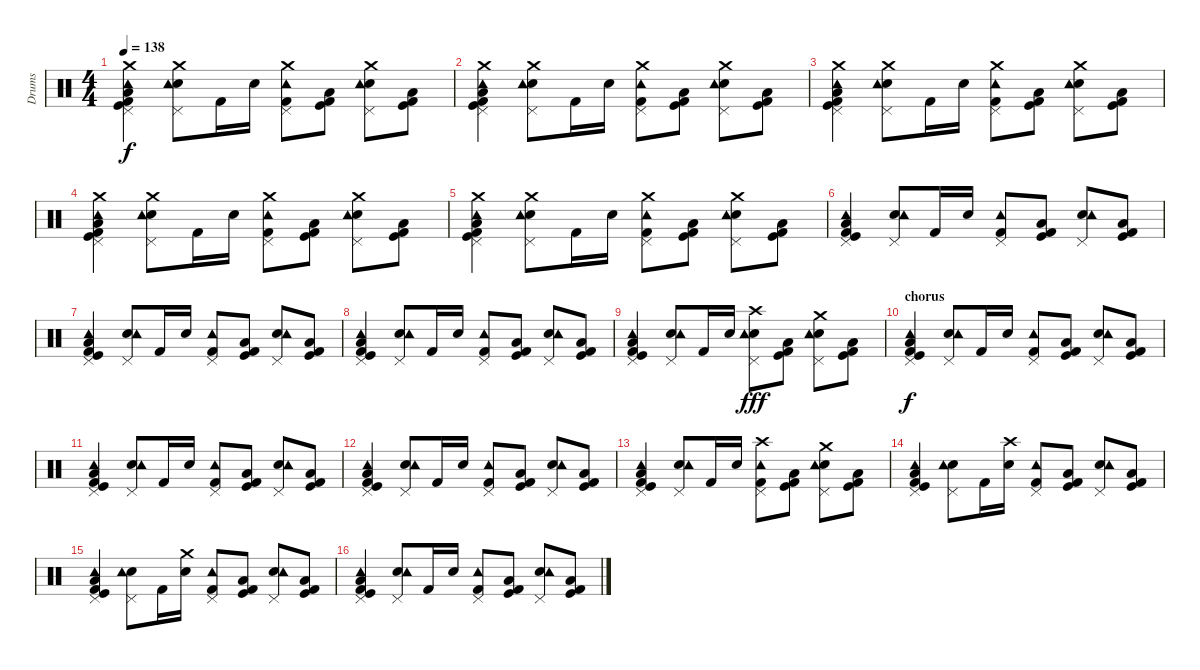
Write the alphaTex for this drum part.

\track ("Drums" "Drums") {instrument percussion}
\staff {score}
\articulation defaults
\ts (4 4)
\tempo 138
\clef neutral
\ks c
("Crash medium (hit)" "Pedal Hi-Hat (hit)" "Kick (hit) 2" "Kick (hit)" "Low Floor Tom (hit)" "Tambourine (hit)").4{dy f} ("Crash medium (hit)" "Pedal Hi-Hat (hit)" "Electric Snare (hit)" "Tambourine (hit)").8 "Kick (hit) 2".16 "Electric Snare (hit)".16 ("Crash medium (hit)" "Pedal Hi-Hat (hit)" "Kick (hit) 2" "Tambourine (hit)").8 ("Kick (hit) 2" "Kick (hit)" "Low Floor Tom (hit)").8 ("Crash medium (hit)" "Pedal Hi-Hat (hit)" "Electric Snare (hit)" "Tambourine (hit)").8 ("Kick (hit) 2" "Low Floor Tom (hit)" "Kick (hit)").8 |
("Crash medium (hit)" "Pedal Hi-Hat (hit)" "Kick (hit) 2" "Kick (hit)" "Low Floor Tom (hit)" "Tambourine (hit)").4 ("Crash medium (hit)" "Pedal Hi-Hat (hit)" "Electric Snare (hit)" "Tambourine (hit)").8 "Kick (hit) 2".16 "Electric Snare (hit)".16 ("Crash medium (hit)" "Pedal Hi-Hat (hit)" "Kick (hit) 2" "Tambourine (hit)").8 ("Kick (hit) 2" "Kick (hit)" "Low Floor Tom (hit)").8 ("Crash medium (hit)" "Pedal Hi-Hat (hit)" "Electric Snare (hit)" "Tambourine (hit)").8 ("Kick (hit) 2" "Low Floor Tom (hit)" "Kick (hit)").8 |
("Crash medium (hit)" "Pedal Hi-Hat (hit)" "Kick (hit) 2" "Kick (hit)" "Low Floor Tom (hit)" "Tambourine (hit)").4 ("Crash medium (hit)" "Pedal Hi-Hat (hit)" "Electric Snare (hit)" "Tambourine (hit)").8 "Kick (hit) 2".16 "Electric Snare (hit)".16 ("Crash medium (hit)" "Pedal Hi-Hat (hit)" "Kick (hit) 2" "Tambourine (hit)").8 ("Kick (hit) 2" "Kick (hit)" "Low Floor Tom (hit)").8 ("Crash medium (hit)" "Pedal Hi-Hat (hit)" "Electric Snare (hit)" "Tambourine (hit)").8 ("Kick (hit) 2" "Low Floor Tom (hit)" "Kick (hit)").8 |
("Crash medium (hit)" "Pedal Hi-Hat (hit)" "Kick (hit) 2" "Kick (hit)" "Low Floor Tom (hit)" "Tambourine (hit)").4 ("Crash medium (hit)" "Pedal Hi-Hat (hit)" "Electric Snare (hit)" "Tambourine (hit)").8 "Kick (hit) 2".16 "Electric Snare (hit)".16 ("Crash medium (hit)" "Pedal Hi-Hat (hit)" "Kick (hit) 2" "Tambourine (hit)").8 ("Kick (hit) 2" "Kick (hit)" "Low Floor Tom (hit)").8 ("Crash medium (hit)" "Pedal Hi-Hat (hit)" "Electric Snare (hit)" "Tambourine (hit)").8 ("Kick (hit) 2" "Low Floor Tom (hit)" "Kick (hit)").8 |
("Crash medium (hit)" "Pedal Hi-Hat (hit)" "Kick (hit) 2" "Kick (hit)" "Low Floor Tom (hit)" "Tambourine (hit)").4 ("Crash medium (hit)" "Pedal Hi-Hat (hit)" "Electric Snare (hit)" "Tambourine (hit)").8 "Kick (hit) 2".16 "Electric Snare (hit)".16 ("Crash medium (hit)" "Pedal Hi-Hat (hit)" "Kick (hit) 2" "Tambourine (hit)").8 ("Kick (hit) 2" "Kick (hit)" "Low Floor Tom (hit)").8 ("Crash medium (hit)" "Pedal Hi-Hat (hit)" "Electric Snare (hit)" "Tambourine (hit)").8 ("Kick (hit) 2" "Low Floor Tom (hit)" "Kick (hit)").8 |
("Pedal Hi-Hat (hit)" "Kick (hit) 2" "Kick (hit)" "Low Floor Tom (hit)" "Tambourine (hit)").4 ("Pedal Hi-Hat (hit)" "Electric Snare (hit)" "Tambourine (hit)").8 "Kick (hit) 2".16 "Electric Snare (hit)".16 ("Pedal Hi-Hat (hit)" "Kick (hit) 2" "Tambourine (hit)").8 ("Kick (hit) 2" "Kick (hit)" "Low Floor Tom (hit)").8 ("Pedal Hi-Hat (hit)" "Electric Snare (hit)" "Tambourine (hit)").8 ("Kick (hit) 2" "Low Floor Tom (hit)" "Kick (hit)").8 |
("Pedal Hi-Hat (hit)" "Kick (hit) 2" "Kick (hit)" "Low Floor Tom (hit)" "Tambourine (hit)").4 ("Pedal Hi-Hat (hit)" "Electric Snare (hit)" "Tambourine (hit)").8 "Kick (hit) 2".16 "Electric Snare (hit)".16 ("Pedal Hi-Hat (hit)" "Kick (hit) 2" "Tambourine (hit)").8 ("Kick (hit) 2" "Kick (hit)" "Low Floor Tom (hit)").8 ("Pedal Hi-Hat (hit)" "Electric Snare (hit)" "Tambourine (hit)").8 ("Kick (hit) 2" "Low Floor Tom (hit)" "Kick (hit)").8 |
("Pedal Hi-Hat (hit)" "Kick (hit) 2" "Kick (hit)" "Low Floor Tom (hit)" "Tambourine (hit)").4 ("Pedal Hi-Hat (hit)" "Electric Snare (hit)" "Tambourine (hit)").8 "Kick (hit) 2".16 "Electric Snare (hit)".16 ("Pedal Hi-Hat (hit)" "Kick (hit) 2" "Tambourine (hit)").8 ("Kick (hit) 2" "Kick (hit)" "Low Floor Tom (hit)").8 ("Pedal Hi-Hat (hit)" "Electric Snare (hit)" "Tambourine (hit)").8 ("Kick (hit) 2" "Low Floor Tom (hit)" "Kick (hit)").8 |
("Pedal Hi-Hat (hit)" "Kick (hit) 2" "Kick (hit)" "Low Floor Tom (hit)" "Tambourine (hit)").4 ("Pedal Hi-Hat (hit)" "Electric Snare (hit)" "Tambourine (hit)").8 "Kick (hit) 2".16 "Electric Snare (hit)".16 ("Crash high (hit)" "Pedal Hi-Hat (hit)" "Electric Snare (hit)" "Tambourine (hit)").8{dy fff} ("Kick (hit) 2" "Kick (hit)" "Low Floor Tom (hit)").8 ("Crash medium (hit)" "Pedal Hi-Hat (hit)" "Electric Snare (hit)" "Tambourine (hit)").8 ("Kick (hit) 2" "Low Floor Tom (hit)" "Kick (hit)").8 |
\section ("" "chorus")
("Pedal Hi-Hat (hit)" "Kick (hit) 2" "Kick (hit)" "Low Floor Tom (hit)" "Tambourine (hit)").4{dy f} ("Pedal Hi-Hat (hit)" "Electric Snare (hit)" "Tambourine (hit)").8 "Kick (hit) 2".16 "Electric Snare (hit)".16 ("Pedal Hi-Hat (hit)" "Kick (hit) 2" "Tambourine (hit)").8 ("Kick (hit) 2" "Kick (hit)" "Low Floor Tom (hit)").8 ("Pedal Hi-Hat (hit)" "Electric Snare (hit)" "Tambourine (hit)").8 ("Kick (hit) 2" "Low Floor Tom (hit)" "Kick (hit)").8 |
("Pedal Hi-Hat (hit)" "Kick (hit) 2" "Kick (hit)" "Low Floor Tom (hit)" "Tambourine (hit)").4 ("Pedal Hi-Hat (hit)" "Electric Snare (hit)" "Tambourine (hit)").8 "Kick (hit) 2".16 "Electric Snare (hit)".16 ("Pedal Hi-Hat (hit)" "Kick (hit) 2" "Tambourine (hit)").8 ("Kick (hit) 2" "Kick (hit)" "Low Floor Tom (hit)").8 ("Pedal Hi-Hat (hit)" "Electric Snare (hit)" "Tambourine (hit)").8 ("Kick (hit) 2" "Low Floor Tom (hit)" "Kick (hit)").8 |
("Pedal Hi-Hat (hit)" "Kick (hit) 2" "Kick (hit)" "Low Floor Tom (hit)" "Tambourine (hit)").4 ("Pedal Hi-Hat (hit)" "Electric Snare (hit)" "Tambourine (hit)").8 "Kick (hit) 2".16 "Electric Snare (hit)".16 ("Pedal Hi-Hat (hit)" "Kick (hit) 2" "Tambourine (hit)").8 ("Kick (hit) 2" "Kick (hit)" "Low Floor Tom (hit)").8 ("Pedal Hi-Hat (hit)" "Electric Snare (hit)" "Tambourine (hit)").8 ("Kick (hit) 2" "Low Floor Tom (hit)" "Kick (hit)").8 |
("Pedal Hi-Hat (hit)" "Kick (hit) 2" "Kick (hit)" "Low Floor Tom (hit)" "Tambourine (hit)").4 ("Pedal Hi-Hat (hit)" "Electric Snare (hit)" "Tambourine (hit)").8 "Kick (hit) 2".16 "Electric Snare (hit)".16 ("Crash high (hit)" "Pedal Hi-Hat (hit)" "Kick (hit) 2" "Tambourine (hit)").8 ("Kick (hit) 2" "Kick (hit)" "Low Floor Tom (hit)").8 ("Crash medium (hit)" "Pedal Hi-Hat (hit)" "Electric Snare (hit)" "Tambourine (hit)").8 ("Kick (hit) 2" "Low Floor Tom (hit)" "Kick (hit)").8 |
("Pedal Hi-Hat (hit)" "Kick (hit) 2" "Kick (hit)" "Low Floor Tom (hit)" "Tambourine (hit)").4 ("Pedal Hi-Hat (hit)" "Electric Snare (hit)" "Tambourine (hit)").8 "Kick (hit) 2".16 ("Crash high (hit)" "Electric Snare (hit)").16 ("Pedal Hi-Hat (hit)" "Kick (hit) 2" "Tambourine (hit)").8 ("Kick (hit) 2" "Kick (hit)" "Low Floor Tom (hit)").8 ("Pedal Hi-Hat (hit)" "Electric Snare (hit)" "Tambourine (hit)").8 ("Kick (hit) 2" "Low Floor Tom (hit)" "Kick (hit)").8 |
("Pedal Hi-Hat (hit)" "Kick (hit) 2" "Kick (hit)" "Low Floor Tom (hit)" "Tambourine (hit)").4 ("Pedal Hi-Hat (hit)" "Electric Snare (hit)" "Tambourine (hit)").8 "Kick (hit) 2".16 ("Crash medium (hit)" "Electric Snare (hit)").16 ("Pedal Hi-Hat (hit)" "Kick (hit) 2" "Tambourine (hit)").8 ("Kick (hit) 2" "Kick (hit)" "Low Floor Tom (hit)").8 ("Pedal Hi-Hat (hit)" "Electric Snare (hit)" "Tambourine (hit)").8 ("Kick (hit) 2" "Low Floor Tom (hit)" "Kick (hit)").8 |
("Pedal Hi-Hat (hit)" "Kick (hit) 2" "Kick (hit)" "Low Floor Tom (hit)" "Tambourine (hit)").4 ("Pedal Hi-Hat (hit)" "Electric Snare (hit)" "Tambourine (hit)").8 "Kick (hit) 2".16 "Electric Snare (hit)".16 ("Pedal Hi-Hat (hit)" "Kick (hit) 2" "Tambourine (hit)").8 ("Kick (hit) 2" "Kick (hit)" "Low Floor Tom (hit)").8 ("Pedal Hi-Hat (hit)" "Electric Snare (hit)" "Tambourine (hit)").8 ("Kick (hit) 2" "Low Floor Tom (hit)" "Kick (hit)").8
